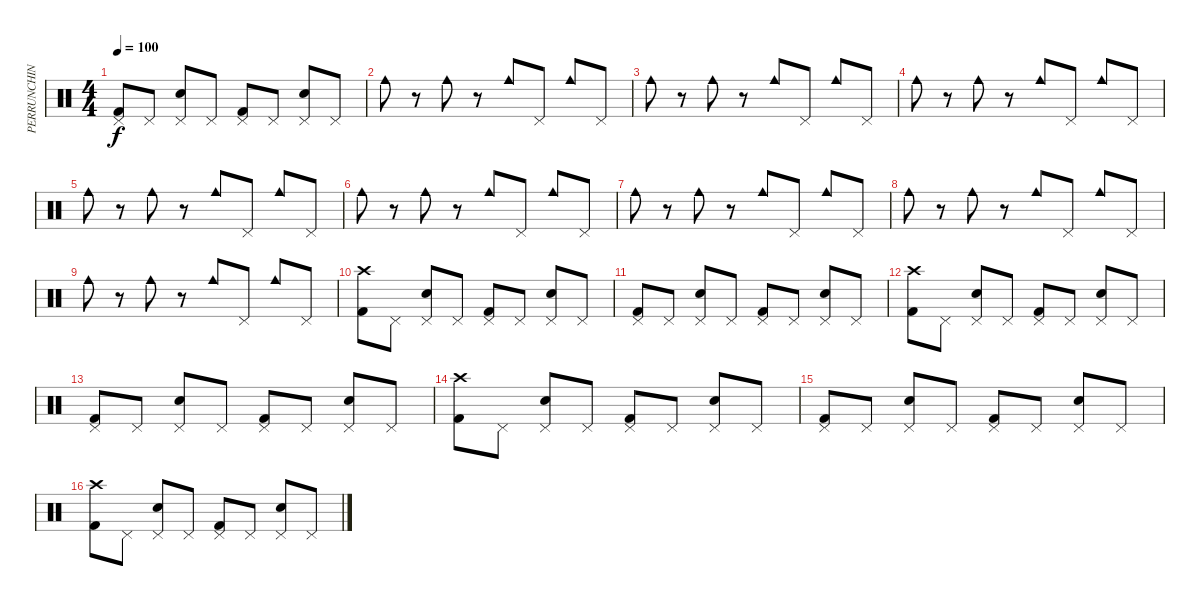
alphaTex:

\track ("PERRUNCHIN" "PERRUNCHIN") {instrument percussion}
\staff {score}
\articulation defaults
\ts (4 4)
\tempo 100
\clef neutral
\ks c
("Pedal Hi-Hat (hit)" "Kick (hit) 2").8{dy f} "Pedal Hi-Hat (hit)".8 ("Pedal Hi-Hat (hit)" "Electric Snare (hit)").8 "Pedal Hi-Hat (hit)".8 ("Pedal Hi-Hat (hit)" "Kick (hit) 2").8 "Pedal Hi-Hat (hit)".8 ("Pedal Hi-Hat (hit)" "Electric Snare (hit)").8 "Pedal Hi-Hat (hit)".8 |
"Cowbell medium (hit)".8 r.8 "Cowbell medium (hit)".8 r.8 "Cowbell medium (hit)".8 "Pedal Hi-Hat (hit)".8 "Cowbell medium (hit)".8 "Pedal Hi-Hat (hit)".8 |
"Cowbell medium (hit)".8 r.8 "Cowbell medium (hit)".8 r.8 "Cowbell medium (hit)".8 "Pedal Hi-Hat (hit)".8 "Cowbell medium (hit)".8 "Pedal Hi-Hat (hit)".8 |
"Cowbell medium (hit)".8 r.8 "Cowbell medium (hit)".8 r.8 "Cowbell medium (hit)".8 "Pedal Hi-Hat (hit)".8 "Cowbell medium (hit)".8 "Pedal Hi-Hat (hit)".8 |
"Cowbell medium (hit)".8 r.8 "Cowbell medium (hit)".8 r.8 "Cowbell medium (hit)".8 "Pedal Hi-Hat (hit)".8 "Cowbell medium (hit)".8 "Pedal Hi-Hat (hit)".8 |
"Cowbell medium (hit)".8 r.8 "Cowbell medium (hit)".8 r.8 "Cowbell medium (hit)".8 "Pedal Hi-Hat (hit)".8 "Cowbell medium (hit)".8 "Pedal Hi-Hat (hit)".8 |
"Cowbell medium (hit)".8 r.8 "Cowbell medium (hit)".8 r.8 "Cowbell medium (hit)".8 "Pedal Hi-Hat (hit)".8 "Cowbell medium (hit)".8 "Pedal Hi-Hat (hit)".8 |
"Cowbell medium (hit)".8 r.8 "Cowbell medium (hit)".8 r.8 "Cowbell medium (hit)".8 "Pedal Hi-Hat (hit)".8 "Cowbell medium (hit)".8 "Pedal Hi-Hat (hit)".8 |
"Cowbell medium (hit)".8 r.8 "Cowbell medium (hit)".8 r.8 "Cowbell medium (hit)".8 "Pedal Hi-Hat (hit)".8 "Cowbell medium (hit)".8 "Pedal Hi-Hat (hit)".8 |
("Crash high (hit)" "Kick (hit) 2").8 "Pedal Hi-Hat (hit)".8 ("Pedal Hi-Hat (hit)" "Electric Snare (hit)").8 "Pedal Hi-Hat (hit)".8 ("Pedal Hi-Hat (hit)" "Kick (hit) 2").8 "Pedal Hi-Hat (hit)".8 ("Pedal Hi-Hat (hit)" "Electric Snare (hit)").8 "Pedal Hi-Hat (hit)".8 |
("Pedal Hi-Hat (hit)" "Kick (hit) 2").8 "Pedal Hi-Hat (hit)".8 ("Pedal Hi-Hat (hit)" "Electric Snare (hit)").8 "Pedal Hi-Hat (hit)".8 ("Pedal Hi-Hat (hit)" "Kick (hit) 2").8 "Pedal Hi-Hat (hit)".8 ("Pedal Hi-Hat (hit)" "Electric Snare (hit)").8 "Pedal Hi-Hat (hit)".8 |
("Crash high (hit)" "Kick (hit) 2").8 "Pedal Hi-Hat (hit)".8 ("Pedal Hi-Hat (hit)" "Electric Snare (hit)").8 "Pedal Hi-Hat (hit)".8 ("Pedal Hi-Hat (hit)" "Kick (hit) 2").8 "Pedal Hi-Hat (hit)".8 ("Pedal Hi-Hat (hit)" "Electric Snare (hit)").8 "Pedal Hi-Hat (hit)".8 |
("Pedal Hi-Hat (hit)" "Kick (hit) 2").8 "Pedal Hi-Hat (hit)".8 ("Pedal Hi-Hat (hit)" "Electric Snare (hit)").8 "Pedal Hi-Hat (hit)".8 ("Pedal Hi-Hat (hit)" "Kick (hit) 2").8 "Pedal Hi-Hat (hit)".8 ("Pedal Hi-Hat (hit)" "Electric Snare (hit)").8 "Pedal Hi-Hat (hit)".8 |
("Crash high (hit)" "Kick (hit) 2").8 "Pedal Hi-Hat (hit)".8 ("Pedal Hi-Hat (hit)" "Electric Snare (hit)").8 "Pedal Hi-Hat (hit)".8 ("Pedal Hi-Hat (hit)" "Kick (hit) 2").8 "Pedal Hi-Hat (hit)".8 ("Pedal Hi-Hat (hit)" "Electric Snare (hit)").8 "Pedal Hi-Hat (hit)".8 |
("Pedal Hi-Hat (hit)" "Kick (hit) 2").8 "Pedal Hi-Hat (hit)".8 ("Pedal Hi-Hat (hit)" "Electric Snare (hit)").8 "Pedal Hi-Hat (hit)".8 ("Pedal Hi-Hat (hit)" "Kick (hit) 2").8 "Pedal Hi-Hat (hit)".8 ("Pedal Hi-Hat (hit)" "Electric Snare (hit)").8 "Pedal Hi-Hat (hit)".8 |
("Crash high (hit)" "Kick (hit) 2").8 "Pedal Hi-Hat (hit)".8 ("Pedal Hi-Hat (hit)" "Electric Snare (hit)").8 "Pedal Hi-Hat (hit)".8 ("Pedal Hi-Hat (hit)" "Kick (hit) 2").8 "Pedal Hi-Hat (hit)".8 ("Pedal Hi-Hat (hit)" "Electric Snare (hit)").8 "Pedal Hi-Hat (hit)".8
